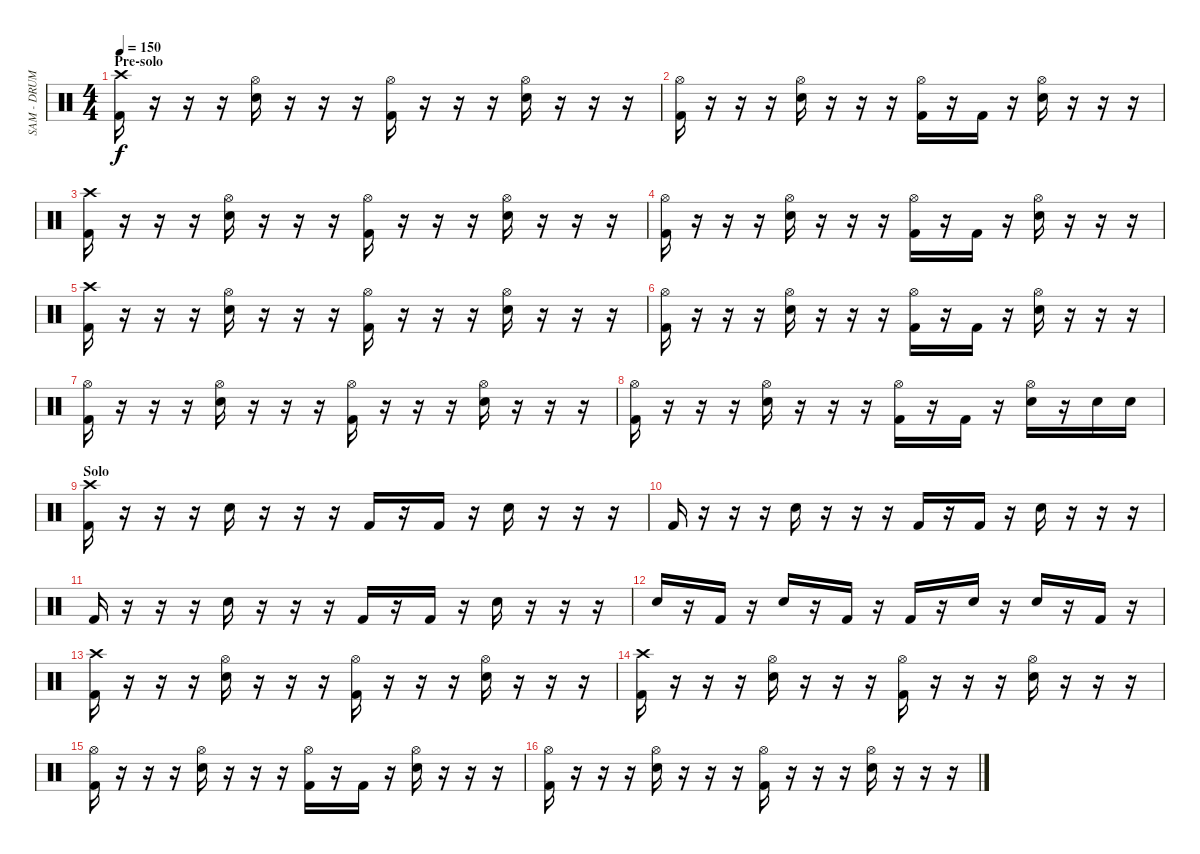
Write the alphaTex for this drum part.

\track ("SAM - DRUMS" "SAM - DRUM") {instrument percussion}
\staff {score}
\articulation defaults
\ts (4 4)
\section ("" "Pre-solo")
\tempo 150
\clef neutral
\ks c
("Crash high (hit)" "Kick (hit) 2").16{dy f} r.16 r.16 r.16 ("Hi-Hat (open)" "Snare (hit) 2").16 r.16 r.16 r.16 ("Hi-Hat (open)" "Kick (hit) 2").16 r.16 r.16 r.16 ("Hi-Hat (open)" "Snare (hit) 2").16 r.16 r.16 r.16 |
("Hi-Hat (open)" "Kick (hit) 2").16 r.16 r.16 r.16 ("Hi-Hat (open)" "Snare (hit) 2").16 r.16 r.16 r.16 ("Hi-Hat (open)" "Kick (hit) 2").16 r.16 "Kick (hit) 2".16 r.16 ("Hi-Hat (open)" "Snare (hit) 2").16 r.16 r.16 r.16 |
("Crash high (hit)" "Kick (hit) 2").16 r.16 r.16 r.16 ("Hi-Hat (open)" "Snare (hit) 2").16 r.16 r.16 r.16 ("Hi-Hat (open)" "Kick (hit) 2").16 r.16 r.16 r.16 ("Hi-Hat (open)" "Snare (hit) 2").16 r.16 r.16 r.16 |
("Hi-Hat (open)" "Kick (hit) 2").16 r.16 r.16 r.16 ("Hi-Hat (open)" "Snare (hit) 2").16 r.16 r.16 r.16 ("Hi-Hat (open)" "Kick (hit) 2").16 r.16 "Kick (hit) 2".16 r.16 ("Hi-Hat (open)" "Snare (hit) 2").16 r.16 r.16 r.16 |
("Crash high (hit)" "Kick (hit) 2").16 r.16 r.16 r.16 ("Hi-Hat (open)" "Snare (hit) 2").16 r.16 r.16 r.16 ("Hi-Hat (open)" "Kick (hit) 2").16 r.16 r.16 r.16 ("Hi-Hat (open)" "Snare (hit) 2").16 r.16 r.16 r.16 |
("Hi-Hat (open)" "Kick (hit) 2").16 r.16 r.16 r.16 ("Hi-Hat (open)" "Snare (hit) 2").16 r.16 r.16 r.16 ("Hi-Hat (open)" "Kick (hit) 2").16 r.16 "Kick (hit) 2".16 r.16 ("Hi-Hat (open)" "Snare (hit) 2").16 r.16 r.16 r.16 |
("Hi-Hat (open)" "Kick (hit) 2").16 r.16 r.16 r.16 ("Hi-Hat (open)" "Snare (hit) 2").16 r.16 r.16 r.16 ("Hi-Hat (open)" "Kick (hit) 2").16 r.16 r.16 r.16 ("Hi-Hat (open)" "Snare (hit) 2").16 r.16 r.16 r.16 |
("Hi-Hat (open)" "Kick (hit) 2").16 r.16 r.16 r.16 ("Hi-Hat (open)" "Snare (hit) 2").16 r.16 r.16 r.16 ("Hi-Hat (open)" "Kick (hit) 2").16 r.16 "Kick (hit) 2".16 r.16 ("Hi-Hat (open)" "Snare (hit) 2").16 r.16 "Snare (hit) 2".16 "Snare (hit) 2".16 |
\section ("" "Solo")
("Crash high (hit)" "Kick (hit) 2").16 r.16 r.16 r.16 "Electric Snare (hit)".16 r.16 r.16 r.16 "Kick (hit) 2".16 r.16 "Kick (hit) 2".16 r.16 "Electric Snare (hit)".16 r.16 r.16 r.16 |
"Kick (hit) 2".16 r.16 r.16 r.16 "Electric Snare (hit)".16 r.16 r.16 r.16 "Kick (hit) 2".16 r.16 "Kick (hit) 2".16 r.16 "Electric Snare (hit)".16 r.16 r.16 r.16 |
"Kick (hit) 2".16 r.16 r.16 r.16 "Electric Snare (hit)".16 r.16 r.16 r.16 "Kick (hit) 2".16 r.16 "Kick (hit) 2".16 r.16 "Electric Snare (hit)".16 r.16 r.16 r.16 |
"Electric Snare (hit)".16 r.16 "Kick (hit) 2".16 r.16 "Electric Snare (hit)".16 r.16 "Kick (hit) 2".16 r.16 "Kick (hit) 2".16 r.16 "Electric Snare (hit)".16 r.16 "Electric Snare (hit)".16 r.16 "Kick (hit) 2".16 r.16 |
("Crash high (hit)" "Kick (hit) 2").16 r.16 r.16 r.16 ("Hi-Hat (open)" "Snare (hit) 2").16 r.16 r.16 r.16 ("Hi-Hat (open)" "Kick (hit) 2").16 r.16 r.16 r.16 ("Hi-Hat (open)" "Snare (hit) 2").16 r.16 r.16 r.16 |
("Crash high (hit)" "Kick (hit) 2").16 r.16 r.16 r.16 ("Hi-Hat (open)" "Snare (hit) 2").16 r.16 r.16 r.16 ("Hi-Hat (open)" "Kick (hit) 2").16 r.16 r.16 r.16 ("Hi-Hat (open)" "Snare (hit) 2").16 r.16 r.16 r.16 |
("Hi-Hat (open)" "Kick (hit) 2").16 r.16 r.16 r.16 ("Hi-Hat (open)" "Snare (hit) 2").16 r.16 r.16 r.16 ("Hi-Hat (open)" "Kick (hit) 2").16 r.16 "Kick (hit) 2".16 r.16 ("Hi-Hat (open)" "Snare (hit) 2").16 r.16 r.16 r.16 |
("Hi-Hat (open)" "Kick (hit) 2").16 r.16 r.16 r.16 ("Hi-Hat (open)" "Snare (hit) 2").16 r.16 r.16 r.16 ("Hi-Hat (open)" "Kick (hit) 2").16 r.16 r.16 r.16 ("Hi-Hat (open)" "Snare (hit) 2").16 r.16 r.16 r.16
